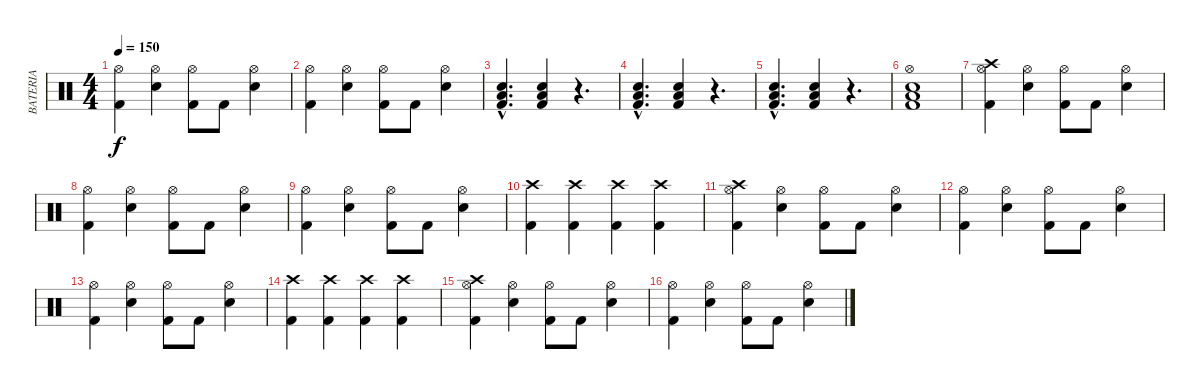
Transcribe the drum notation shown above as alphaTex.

\track ("BATERIA" "BATERIA") {instrument percussion}
\staff {score}
\articulation defaults
\ts (4 4)
\tempo 150
\clef neutral
\ks c
("Hi-Hat (open)" "Kick (hit) 2").4{dy f} ("Hi-Hat (open)" "Snare (hit) 2").4 ("Hi-Hat (open)" "Kick (hit) 2").8 "Kick (hit) 2".8 ("Hi-Hat (open)" "Snare (hit) 2").4 |
("Hi-Hat (open)" "Kick (hit) 2").4 ("Hi-Hat (open)" "Snare (hit) 2").4 ("Hi-Hat (open)" "Kick (hit) 2").8 "Kick (hit) 2".8 ("Hi-Hat (open)" "Snare (hit) 2").4 |
("Snare (hit) 2"{hac} "Low Floor Tom (hit)"{hac} "Kick (hit) 2"{hac}).4{d} ("Snare (hit) 2" "Low Floor Tom (hit)" "Kick (hit) 2").4 r.4{d} |
("Snare (hit) 2"{hac} "Low Floor Tom (hit)"{hac} "Kick (hit) 2"{hac}).4{d} ("Snare (hit) 2" "Low Floor Tom (hit)" "Kick (hit) 2").4 r.4{d} |
("Snare (hit) 2"{hac} "Low Floor Tom (hit)"{hac} "Kick (hit) 2"{hac}).4{d} ("Snare (hit) 2" "Low Floor Tom (hit)" "Kick (hit) 2").4 r.4{d} |
("Hi-Hat (open)" "Snare (hit) 2" "Low Floor Tom (hit)" "Kick (hit) 2").1 |
("Crash high (hit)" "Hi-Hat (open)" "Kick (hit) 2").4 ("Hi-Hat (open)" "Snare (hit) 2").4 ("Hi-Hat (open)" "Kick (hit) 2").8 "Kick (hit) 2".8 ("Hi-Hat (open)" "Snare (hit) 2").4 |
("Hi-Hat (open)" "Kick (hit) 2").4 ("Hi-Hat (open)" "Snare (hit) 2").4 ("Hi-Hat (open)" "Kick (hit) 2").8 "Kick (hit) 2".8 ("Hi-Hat (open)" "Snare (hit) 2").4 |
("Hi-Hat (open)" "Kick (hit) 2").4 ("Hi-Hat (open)" "Snare (hit) 2").4 ("Hi-Hat (open)" "Kick (hit) 2").8 "Kick (hit) 2".8 ("Hi-Hat (open)" "Snare (hit) 2").4 |
("Crash high (hit)" "Kick (hit) 2").4 ("Crash high (hit)" "Kick (hit) 2").4 ("Crash high (hit)" "Kick (hit) 2").4 ("Crash high (hit)" "Kick (hit) 2").4 |
("Crash high (hit)" "Hi-Hat (open)" "Kick (hit) 2").4 ("Hi-Hat (open)" "Snare (hit) 2").4 ("Hi-Hat (open)" "Kick (hit) 2").8 "Kick (hit) 2".8 ("Hi-Hat (open)" "Snare (hit) 2").4 |
("Hi-Hat (open)" "Kick (hit) 2").4 ("Hi-Hat (open)" "Snare (hit) 2").4 ("Hi-Hat (open)" "Kick (hit) 2").8 "Kick (hit) 2".8 ("Hi-Hat (open)" "Snare (hit) 2").4 |
("Hi-Hat (open)" "Kick (hit) 2").4 ("Hi-Hat (open)" "Snare (hit) 2").4 ("Hi-Hat (open)" "Kick (hit) 2").8 "Kick (hit) 2".8 ("Hi-Hat (open)" "Snare (hit) 2").4 |
("Crash high (hit)" "Kick (hit) 2").4 ("Crash high (hit)" "Kick (hit) 2").4 ("Crash high (hit)" "Kick (hit) 2").4 ("Crash high (hit)" "Kick (hit) 2").4 |
("Crash high (hit)" "Hi-Hat (open)" "Kick (hit) 2").4 ("Hi-Hat (open)" "Snare (hit) 2").4 ("Hi-Hat (open)" "Kick (hit) 2").8 "Kick (hit) 2".8 ("Hi-Hat (open)" "Snare (hit) 2").4 |
("Hi-Hat (open)" "Kick (hit) 2").4 ("Hi-Hat (open)" "Snare (hit) 2").4 ("Hi-Hat (open)" "Kick (hit) 2").8 "Kick (hit) 2".8 ("Hi-Hat (open)" "Snare (hit) 2").4
